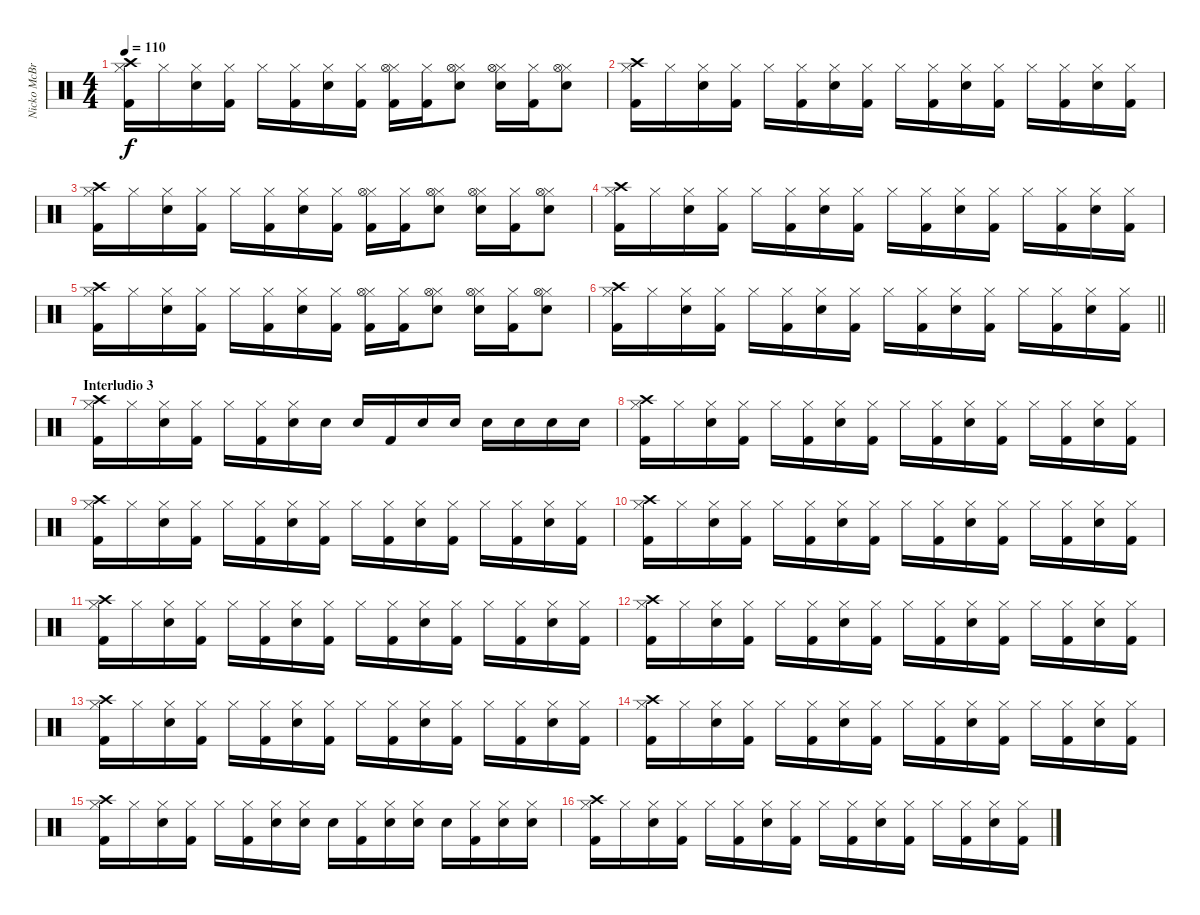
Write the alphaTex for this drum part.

\track ("Nicko McBrain" "Nicko McBr") {instrument percussion}
\staff {score}
\articulation defaults
\ts (4 4)
\tempo 110
\clef neutral
\ks c
("Kick (hit) 2" "Hi-Hat (closed)" "Crash high (hit)").16{dy f} "Hi-Hat (closed)".16 ("Snare (hit) 2" "Hi-Hat (closed)").16 ("Kick (hit) 2" "Hi-Hat (closed)").16 "Hi-Hat (closed)".16 ("Kick (hit) 2" "Hi-Hat (closed)").16 ("Snare (hit) 2" "Hi-Hat (closed)").16 ("Kick (hit) 2" "Hi-Hat (closed)").16 ("Kick (hit) 2" "Hi-Hat (closed)" "Hi-Hat (open)").16 ("Kick (hit) 2" "Hi-Hat (closed)").16 ("Snare (hit) 2" "Hi-Hat (closed)" "Hi-Hat (open)").8 ("Snare (hit) 2" "Hi-Hat (closed)" "Hi-Hat (open)").16 ("Kick (hit) 2" "Hi-Hat (closed)").16 ("Snare (hit) 2" "Hi-Hat (closed)" "Hi-Hat (open)").8 |
("Kick (hit) 2" "Hi-Hat (closed)" "Crash high (hit)").16 "Hi-Hat (closed)".16 ("Snare (hit) 2" "Hi-Hat (closed)").16 ("Kick (hit) 2" "Hi-Hat (closed)").16 "Hi-Hat (closed)".16 ("Kick (hit) 2" "Hi-Hat (closed)").16 ("Snare (hit) 2" "Hi-Hat (closed)").16 ("Kick (hit) 2" "Hi-Hat (closed)").16 "Hi-Hat (closed)".16 ("Kick (hit) 2" "Hi-Hat (closed)").16 ("Snare (hit) 2" "Hi-Hat (closed)").16 ("Kick (hit) 2" "Hi-Hat (closed)").16 "Hi-Hat (closed)".16 ("Kick (hit) 2" "Hi-Hat (closed)").16 ("Snare (hit) 2" "Hi-Hat (closed)").16 ("Kick (hit) 2" "Hi-Hat (closed)").16 |
("Kick (hit) 2" "Hi-Hat (closed)" "Crash high (hit)").16 "Hi-Hat (closed)".16 ("Snare (hit) 2" "Hi-Hat (closed)").16 ("Kick (hit) 2" "Hi-Hat (closed)").16 "Hi-Hat (closed)".16 ("Kick (hit) 2" "Hi-Hat (closed)").16 ("Snare (hit) 2" "Hi-Hat (closed)").16 ("Kick (hit) 2" "Hi-Hat (closed)").16 ("Kick (hit) 2" "Hi-Hat (closed)" "Hi-Hat (open)").16 ("Kick (hit) 2" "Hi-Hat (closed)").16 ("Snare (hit) 2" "Hi-Hat (closed)" "Hi-Hat (open)").8 ("Snare (hit) 2" "Hi-Hat (closed)" "Hi-Hat (open)").16 ("Kick (hit) 2" "Hi-Hat (closed)").16 ("Snare (hit) 2" "Hi-Hat (closed)" "Hi-Hat (open)").8 |
("Kick (hit) 2" "Hi-Hat (closed)" "Crash high (hit)").16 "Hi-Hat (closed)".16 ("Snare (hit) 2" "Hi-Hat (closed)").16 ("Kick (hit) 2" "Hi-Hat (closed)").16 "Hi-Hat (closed)".16 ("Kick (hit) 2" "Hi-Hat (closed)").16 ("Snare (hit) 2" "Hi-Hat (closed)").16 ("Kick (hit) 2" "Hi-Hat (closed)").16 "Hi-Hat (closed)".16 ("Kick (hit) 2" "Hi-Hat (closed)").16 ("Snare (hit) 2" "Hi-Hat (closed)").16 ("Kick (hit) 2" "Hi-Hat (closed)").16 "Hi-Hat (closed)".16 ("Kick (hit) 2" "Hi-Hat (closed)").16 ("Snare (hit) 2" "Hi-Hat (closed)").16 ("Kick (hit) 2" "Hi-Hat (closed)").16 |
("Kick (hit) 2" "Hi-Hat (closed)" "Crash high (hit)").16 "Hi-Hat (closed)".16 ("Snare (hit) 2" "Hi-Hat (closed)").16 ("Kick (hit) 2" "Hi-Hat (closed)").16 "Hi-Hat (closed)".16 ("Kick (hit) 2" "Hi-Hat (closed)").16 ("Snare (hit) 2" "Hi-Hat (closed)").16 ("Kick (hit) 2" "Hi-Hat (closed)").16 ("Kick (hit) 2" "Hi-Hat (closed)" "Hi-Hat (open)").16 ("Kick (hit) 2" "Hi-Hat (closed)").16 ("Snare (hit) 2" "Hi-Hat (closed)" "Hi-Hat (open)").8 ("Snare (hit) 2" "Hi-Hat (closed)" "Hi-Hat (open)").16 ("Kick (hit) 2" "Hi-Hat (closed)").16 ("Snare (hit) 2" "Hi-Hat (closed)" "Hi-Hat (open)").8 |
\barLineRight lightlight
("Kick (hit) 2" "Hi-Hat (closed)" "Crash high (hit)").16 "Hi-Hat (closed)".16 ("Snare (hit) 2" "Hi-Hat (closed)").16 ("Kick (hit) 2" "Hi-Hat (closed)").16 "Hi-Hat (closed)".16 ("Kick (hit) 2" "Hi-Hat (closed)").16 ("Snare (hit) 2" "Hi-Hat (closed)").16 ("Kick (hit) 2" "Hi-Hat (closed)").16 "Hi-Hat (closed)".16 ("Kick (hit) 2" "Hi-Hat (closed)").16 ("Snare (hit) 2" "Hi-Hat (closed)").16 ("Kick (hit) 2" "Hi-Hat (closed)").16 "Hi-Hat (closed)".16 ("Kick (hit) 2" "Hi-Hat (closed)").16 ("Snare (hit) 2" "Hi-Hat (closed)").16 ("Kick (hit) 2" "Hi-Hat (closed)").16 |
\section ("" "Interludio 3")
("Kick (hit) 2" "Hi-Hat (closed)" "Crash high (hit)").16 "Hi-Hat (closed)".16 ("Snare (hit) 2" "Hi-Hat (closed)").16 ("Kick (hit) 2" "Hi-Hat (closed)").16 "Hi-Hat (closed)".16 ("Kick (hit) 2" "Hi-Hat (closed)").16 ("Snare (hit) 2" "Hi-Hat (closed)").16 "Snare (hit) 2".16 "Snare (hit) 2".16 "Kick (hit) 2".16 "Snare (hit) 2".16 "Snare (hit) 2".16 "Snare (hit) 2".16 "Snare (hit) 2".16 "Snare (hit) 2".16 "Snare (hit) 2".16 |
("Kick (hit) 2" "Hi-Hat (closed)" "Crash high (hit)").16 "Hi-Hat (closed)".16 ("Snare (hit) 2" "Hi-Hat (closed)").16 ("Kick (hit) 2" "Hi-Hat (closed)").16 "Hi-Hat (closed)".16 ("Kick (hit) 2" "Hi-Hat (closed)").16 ("Snare (hit) 2" "Hi-Hat (closed)").16 ("Kick (hit) 2" "Hi-Hat (closed)").16 "Hi-Hat (closed)".16 ("Kick (hit) 2" "Hi-Hat (closed)").16 ("Snare (hit) 2" "Hi-Hat (closed)").16 ("Kick (hit) 2" "Hi-Hat (closed)").16 "Hi-Hat (closed)".16 ("Kick (hit) 2" "Hi-Hat (closed)").16 ("Snare (hit) 2" "Hi-Hat (closed)").16 ("Kick (hit) 2" "Hi-Hat (closed)").16 |
("Kick (hit) 2" "Hi-Hat (closed)" "Crash high (hit)").16 "Hi-Hat (closed)".16 ("Snare (hit) 2" "Hi-Hat (closed)").16 ("Kick (hit) 2" "Hi-Hat (closed)").16 "Hi-Hat (closed)".16 ("Kick (hit) 2" "Hi-Hat (closed)").16 ("Snare (hit) 2" "Hi-Hat (closed)").16 ("Kick (hit) 2" "Hi-Hat (closed)").16 "Hi-Hat (closed)".16 ("Kick (hit) 2" "Hi-Hat (closed)").16 ("Snare (hit) 2" "Hi-Hat (closed)").16 ("Kick (hit) 2" "Hi-Hat (closed)").16 "Hi-Hat (closed)".16 ("Kick (hit) 2" "Hi-Hat (closed)").16 ("Snare (hit) 2" "Hi-Hat (closed)").16 ("Kick (hit) 2" "Hi-Hat (closed)").16 |
("Kick (hit) 2" "Hi-Hat (closed)" "Crash high (hit)").16 "Hi-Hat (closed)".16 ("Snare (hit) 2" "Hi-Hat (closed)").16 ("Kick (hit) 2" "Hi-Hat (closed)").16 "Hi-Hat (closed)".16 ("Kick (hit) 2" "Hi-Hat (closed)").16 ("Snare (hit) 2" "Hi-Hat (closed)").16 ("Kick (hit) 2" "Hi-Hat (closed)").16 "Hi-Hat (closed)".16 ("Kick (hit) 2" "Hi-Hat (closed)").16 ("Snare (hit) 2" "Hi-Hat (closed)").16 ("Kick (hit) 2" "Hi-Hat (closed)").16 "Hi-Hat (closed)".16 ("Kick (hit) 2" "Hi-Hat (closed)").16 ("Snare (hit) 2" "Hi-Hat (closed)").16 ("Kick (hit) 2" "Hi-Hat (closed)").16 |
("Kick (hit) 2" "Hi-Hat (closed)" "Crash high (hit)").16 "Hi-Hat (closed)".16 ("Snare (hit) 2" "Hi-Hat (closed)").16 ("Kick (hit) 2" "Hi-Hat (closed)").16 "Hi-Hat (closed)".16 ("Kick (hit) 2" "Hi-Hat (closed)").16 ("Snare (hit) 2" "Hi-Hat (closed)").16 ("Kick (hit) 2" "Hi-Hat (closed)").16 "Hi-Hat (closed)".16 ("Kick (hit) 2" "Hi-Hat (closed)").16 ("Snare (hit) 2" "Hi-Hat (closed)").16 ("Kick (hit) 2" "Hi-Hat (closed)").16 "Hi-Hat (closed)".16 ("Kick (hit) 2" "Hi-Hat (closed)").16 ("Snare (hit) 2" "Hi-Hat (closed)").16 ("Kick (hit) 2" "Hi-Hat (closed)").16 |
("Kick (hit) 2" "Hi-Hat (closed)" "Crash high (hit)").16 "Hi-Hat (closed)".16 ("Snare (hit) 2" "Hi-Hat (closed)").16 ("Kick (hit) 2" "Hi-Hat (closed)").16 "Hi-Hat (closed)".16 ("Kick (hit) 2" "Hi-Hat (closed)").16 ("Snare (hit) 2" "Hi-Hat (closed)").16 ("Kick (hit) 2" "Hi-Hat (closed)").16 "Hi-Hat (closed)".16 ("Kick (hit) 2" "Hi-Hat (closed)").16 ("Snare (hit) 2" "Hi-Hat (closed)").16 ("Kick (hit) 2" "Hi-Hat (closed)").16 "Hi-Hat (closed)".16 ("Kick (hit) 2" "Hi-Hat (closed)").16 ("Snare (hit) 2" "Hi-Hat (closed)").16 ("Kick (hit) 2" "Hi-Hat (closed)").16 |
("Kick (hit) 2" "Hi-Hat (closed)" "Crash high (hit)").16 "Hi-Hat (closed)".16 ("Snare (hit) 2" "Hi-Hat (closed)").16 ("Kick (hit) 2" "Hi-Hat (closed)").16 "Hi-Hat (closed)".16 ("Kick (hit) 2" "Hi-Hat (closed)").16 ("Snare (hit) 2" "Hi-Hat (closed)").16 ("Kick (hit) 2" "Hi-Hat (closed)").16 "Hi-Hat (closed)".16 ("Kick (hit) 2" "Hi-Hat (closed)").16 ("Snare (hit) 2" "Hi-Hat (closed)").16 ("Kick (hit) 2" "Hi-Hat (closed)").16 "Hi-Hat (closed)".16 ("Kick (hit) 2" "Hi-Hat (closed)").16 ("Snare (hit) 2" "Hi-Hat (closed)").16 ("Kick (hit) 2" "Hi-Hat (closed)").16 |
("Kick (hit) 2" "Hi-Hat (closed)" "Crash high (hit)").16 "Hi-Hat (closed)".16 ("Snare (hit) 2" "Hi-Hat (closed)").16 ("Kick (hit) 2" "Hi-Hat (closed)").16 "Hi-Hat (closed)".16 ("Kick (hit) 2" "Hi-Hat (closed)").16 ("Snare (hit) 2" "Hi-Hat (closed)").16 ("Kick (hit) 2" "Hi-Hat (closed)").16 "Hi-Hat (closed)".16 ("Kick (hit) 2" "Hi-Hat (closed)").16 ("Snare (hit) 2" "Hi-Hat (closed)").16 ("Kick (hit) 2" "Hi-Hat (closed)").16 "Hi-Hat (closed)".16 ("Kick (hit) 2" "Hi-Hat (closed)").16 ("Snare (hit) 2" "Hi-Hat (closed)").16 ("Kick (hit) 2" "Hi-Hat (closed)").16 |
("Kick (hit) 2" "Hi-Hat (closed)" "Crash high (hit)").16 "Hi-Hat (closed)".16 ("Snare (hit) 2" "Hi-Hat (closed)").16 ("Kick (hit) 2" "Hi-Hat (closed)").16 "Hi-Hat (closed)".16 ("Kick (hit) 2" "Hi-Hat (closed)").16 ("Snare (hit) 2" "Hi-Hat (closed)").16 ("Snare (hit) 2" "Hi-Hat (closed)").16 "Snare (hit) 2".16 ("Kick (hit) 2" "Hi-Hat (closed)").16 ("Snare (hit) 2" "Hi-Hat (closed)").16 ("Snare (hit) 2" "Hi-Hat (closed)").16 "Snare (hit) 2".16 ("Kick (hit) 2" "Hi-Hat (closed)").16 ("Snare (hit) 2" "Hi-Hat (closed)").16 ("Snare (hit) 2" "Hi-Hat (closed)").16 |
("Kick (hit) 2" "Hi-Hat (closed)" "Crash high (hit)").16 "Hi-Hat (closed)".16 ("Snare (hit) 2" "Hi-Hat (closed)").16 ("Kick (hit) 2" "Hi-Hat (closed)").16 "Hi-Hat (closed)".16 ("Kick (hit) 2" "Hi-Hat (closed)").16 ("Snare (hit) 2" "Hi-Hat (closed)").16 ("Kick (hit) 2" "Hi-Hat (closed)").16 "Hi-Hat (closed)".16 ("Kick (hit) 2" "Hi-Hat (closed)").16 ("Snare (hit) 2" "Hi-Hat (closed)").16 ("Kick (hit) 2" "Hi-Hat (closed)").16 "Hi-Hat (closed)".16 ("Kick (hit) 2" "Hi-Hat (closed)").16 ("Snare (hit) 2" "Hi-Hat (closed)").16 ("Kick (hit) 2" "Hi-Hat (closed)").16
